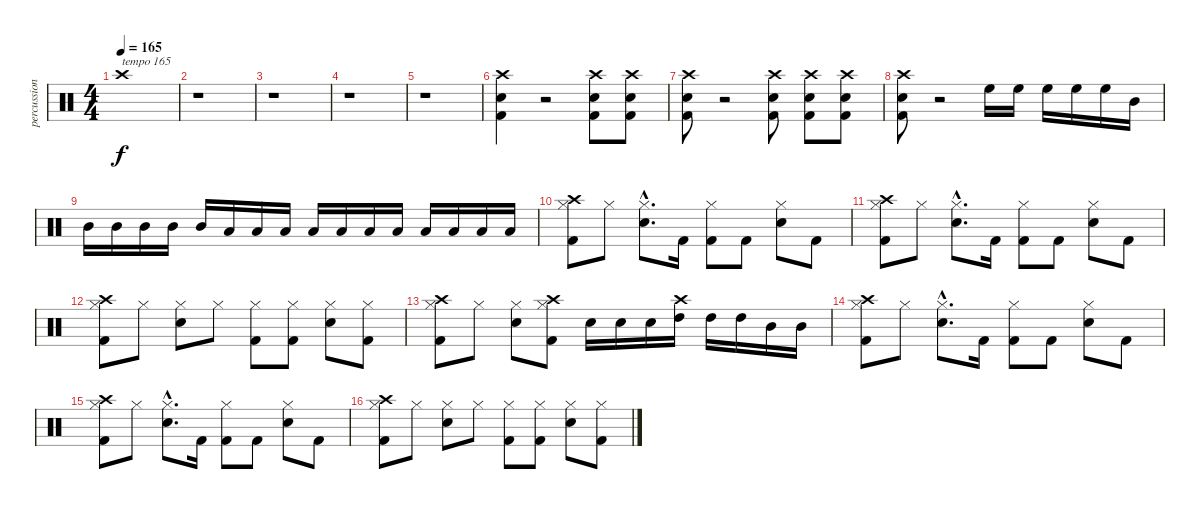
\track ("percussion" "percussion") {instrument percussion}
\staff {score}
\articulation defaults
\ts (4 4)
\tempo 165
\clef neutral
\ks c "Crash high (hit)".1{txt "tempo 165" dy f}
|
r.1 |
r.1 |
r.1 |
r.1 |
("Kick (hit) 2" "Crash high (hit)" "Snare (hit) 2").4 r.2 ("Kick (hit) 2" "Crash high (hit)" "Snare (hit) 2").8 ("Kick (hit) 2" "Crash high (hit)" "Snare (hit) 2").8 |
("Kick (hit) 2" "Crash high (hit)" "Snare (hit) 2").8 r.2 ("Kick (hit) 2" "Crash high (hit)" "Snare (hit) 2").8 ("Kick (hit) 2" "Crash high (hit)" "Snare (hit) 2").8 ("Kick (hit) 2" "Crash high (hit)" "Snare (hit) 2").8 |
("Kick (hit) 2" "Crash high (hit)" "Snare (hit) 2").8 r.2 "High Floor Tom (hit)".16 "High Floor Tom (hit)".16 "High Floor Tom (hit)".16 "High Floor Tom (hit)".16 "High Floor Tom (hit)".16 "Mid Tom (hit)".16 |
"Mid Tom (hit)".16 "Mid Tom (hit)".16 "Mid Tom (hit)".16 "Mid Tom (hit)".16 "Mid Tom (hit)".16 "Low Tom (hit)".16 "Low Tom (hit)".16 "Low Tom (hit)".16 "Low Tom (hit)".16 "Low Tom (hit)".16 "Low Floor Tom (hit)".16 "Low Floor Tom (hit)".16 "Low Floor Tom (hit)".16 "Low Floor Tom (hit)".16 "Low Floor Tom (hit)".16 "Low Floor Tom (hit)".16 |
("Crash high (hit)" "Hi-Hat (closed)" "Kick (hit) 2").8 "Hi-Hat (closed)".8 ("Hi-Hat (closed)"{hac} "Snare (hit) 2"{hac}).8{d} "Kick (hit) 2".16 ("Hi-Hat (closed)" "Kick (hit) 2").8 "Kick (hit) 2".8 ("Hi-Hat (closed)" "Snare (hit) 2").8 "Kick (hit) 2".8 |
("Crash high (hit)" "Hi-Hat (closed)" "Kick (hit) 2").8 "Hi-Hat (closed)".8 ("Hi-Hat (closed)"{hac} "Snare (hit) 2"{hac}).8{d} "Kick (hit) 2".16 ("Hi-Hat (closed)" "Kick (hit) 2").8 "Kick (hit) 2".8 ("Hi-Hat (closed)" "Snare (hit) 2").8 "Kick (hit) 2".8 |
("Crash high (hit)" "Hi-Hat (closed)" "Kick (hit) 2").8 "Hi-Hat (closed)".8 ("Hi-Hat (closed)" "Snare (hit) 2").8 "Hi-Hat (closed)".8 ("Hi-Hat (closed)" "Kick (hit) 2").8 ("Hi-Hat (closed)" "Kick (hit) 2").8 ("Hi-Hat (closed)" "Snare (hit) 2").8 ("Hi-Hat (closed)" "Kick (hit) 2").8 |
("Crash high (hit)" "Hi-Hat (closed)" "Kick (hit) 2").8 "Hi-Hat (closed)".8 ("Hi-Hat (closed)" "Snare (hit) 2").8 ("Crash high (hit)" "Hi-Hat (closed)" "Kick (hit) 2").8 "Snare (hit) 2".16 "Snare (hit) 2".16 "Snare (hit) 2".16 ("Crash high (hit)" "High Tom (hit)").16 "High Tom (hit)".16 "High Tom (hit)".16 "Mid Tom (hit)".16 "Mid Tom (hit)".16 |
("Crash high (hit)" "Hi-Hat (closed)" "Kick (hit) 2").8 "Hi-Hat (closed)".8 ("Hi-Hat (closed)"{hac} "Snare (hit) 2"{hac}).8{d} "Kick (hit) 2".16 ("Hi-Hat (closed)" "Kick (hit) 2").8 "Kick (hit) 2".8 ("Hi-Hat (closed)" "Snare (hit) 2").8 "Kick (hit) 2".8 |
("Crash high (hit)" "Hi-Hat (closed)" "Kick (hit) 2").8 "Hi-Hat (closed)".8 ("Hi-Hat (closed)"{hac} "Snare (hit) 2"{hac}).8{d} "Kick (hit) 2".16 ("Hi-Hat (closed)" "Kick (hit) 2").8 "Kick (hit) 2".8 ("Hi-Hat (closed)" "Snare (hit) 2").8 "Kick (hit) 2".8 |
("Crash high (hit)" "Hi-Hat (closed)" "Kick (hit) 2").8 "Hi-Hat (closed)".8 ("Hi-Hat (closed)" "Snare (hit) 2").8 "Hi-Hat (closed)".8 ("Hi-Hat (closed)" "Kick (hit) 2").8 ("Hi-Hat (closed)" "Kick (hit) 2").8 ("Hi-Hat (closed)" "Snare (hit) 2").8 ("Hi-Hat (closed)" "Kick (hit) 2").8
